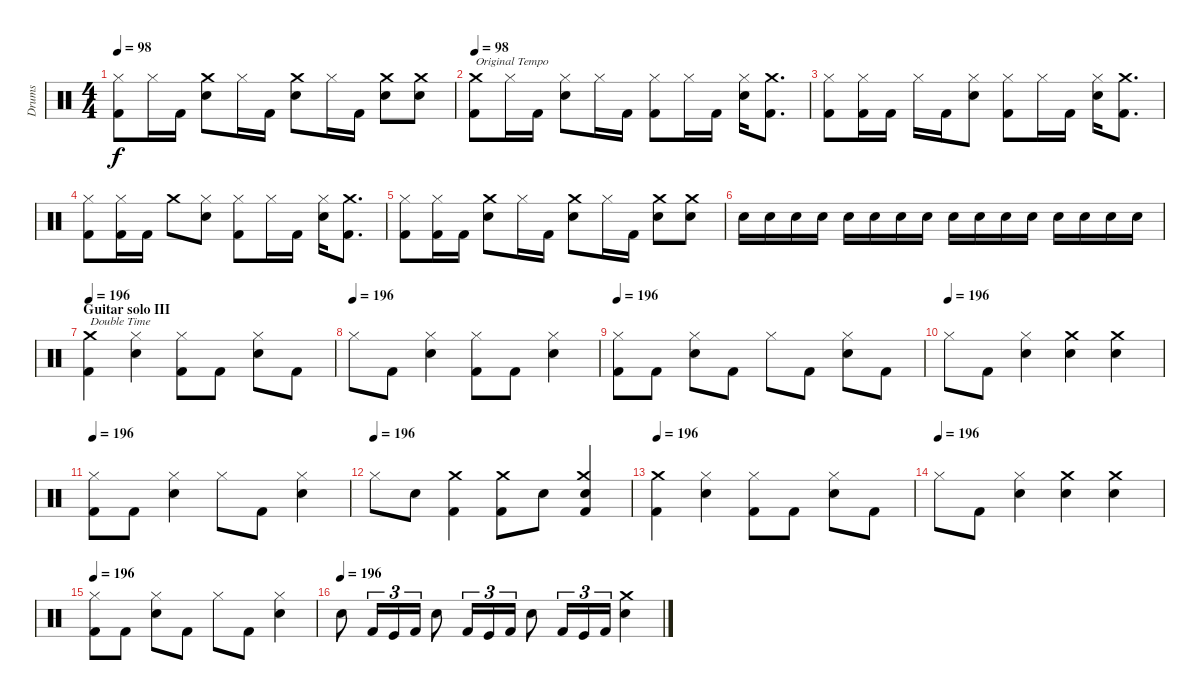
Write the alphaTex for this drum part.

\track ("Drums" "Drums") {instrument percussion}
\staff {score}
\articulation defaults
\ts (4 4)
\tempo 98
\clef neutral
\ks c
("Kick (hit) 2" "Hi-Hat (closed)").8{dy f} "Hi-Hat (closed)".16 "Kick (hit) 2".16 ("Crash medium (hit)" "Snare (hit) 2").8 "Hi-Hat (closed)".16 "Kick (hit) 2".16 ("Snare (hit) 2" "Crash medium (hit)").8 "Hi-Hat (closed)".16 "Kick (hit) 2".16 ("Crash medium (hit)" "Snare (hit) 2").8 ("Crash medium (hit)" "Snare (hit) 2").8 |
\tempo 98
("Crash medium (hit)" "Kick (hit) 2").8{txt "Original Tempo"} "Hi-Hat (closed)".16 "Kick (hit) 2".16 ("Snare (hit) 2" "Hi-Hat (closed)").8 "Hi-Hat (closed)".16 "Kick (hit) 2".16 ("Hi-Hat (closed)" "Kick (hit) 2").8 "Hi-Hat (closed)".16 "Kick (hit) 2".16 ("Snare (hit) 2" "Hi-Hat (closed)").16 ("Crash medium (hit)" "Kick (hit) 2").8{d} |
("Kick (hit) 2" "Hi-Hat (closed)").8 ("Kick (hit) 2" "Hi-Hat (closed)").16 "Kick (hit) 2".16 "Hi-Hat (closed)".16 "Kick (hit) 2".16 ("Snare (hit) 2" "Hi-Hat (closed)").8 ("Kick (hit) 2" "Hi-Hat (closed)").8 "Hi-Hat (closed)".16 "Kick (hit) 2".16 ("Snare (hit) 2" "Hi-Hat (closed)").16 ("Kick (hit) 2" "Crash medium (hit)").8{d} |
("Kick (hit) 2" "Hi-Hat (closed)").8 ("Kick (hit) 2" "Hi-Hat (closed)").16 "Kick (hit) 2".16 "Crash medium (hit)".8 ("Snare (hit) 2" "Hi-Hat (closed)").8 ("Kick (hit) 2" "Hi-Hat (closed)").8 "Hi-Hat (closed)".16 "Kick (hit) 2".16 ("Snare (hit) 2" "Hi-Hat (closed)").16 ("Kick (hit) 2" "Crash medium (hit)").8{d} |
("Kick (hit) 2" "Hi-Hat (closed)").8 ("Kick (hit) 2" "Hi-Hat (closed)").16 "Kick (hit) 2".16 ("Crash medium (hit)" "Snare (hit) 2").8 "Hi-Hat (closed)".16 "Kick (hit) 2".16 ("Snare (hit) 2" "Crash medium (hit)").8 "Hi-Hat (closed)".16 "Kick (hit) 2".16 ("Crash medium (hit)" "Snare (hit) 2").8 ("Crash medium (hit)" "Snare (hit) 2").8 |
"Snare (hit) 2".16 "Snare (hit) 2".16 "Snare (hit) 2".16 "Snare (hit) 2".16 "Snare (hit) 2".16 "Snare (hit) 2".16 "Snare (hit) 2".16 "Snare (hit) 2".16 "Snare (hit) 2".16 "Snare (hit) 2".16 "Snare (hit) 2".16 "Snare (hit) 2".16 "Snare (hit) 2".16 "Snare (hit) 2".16 "Snare (hit) 2".16 "Snare (hit) 2".16 |
\section ("" "Guitar solo III")
\tempo 196
("Kick (hit) 2" "Crash medium (hit)").4{txt "Double Time"} ("Hi-Hat (closed)" "Snare (hit) 2").4 ("Kick (hit) 2" "Hi-Hat (closed)").8 "Kick (hit) 2".8 ("Snare (hit) 2" "Hi-Hat (closed)").8 "Kick (hit) 2".8 |
\tempo (196)
"Hi-Hat (closed)".8 "Kick (hit) 2".8 ("Snare (hit) 2" "Hi-Hat (closed)").4 ("Hi-Hat (closed)" "Kick (hit) 2").8 "Kick (hit) 2".8 ("Snare (hit) 2" "Hi-Hat (closed)").4 |
\tempo 196
("Kick (hit) 2" "Hi-Hat (closed)").8 "Kick (hit) 2".8 ("Snare (hit) 2" "Hi-Hat (closed)").8 "Kick (hit) 2".8 "Hi-Hat (closed)".8 "Kick (hit) 2".8 ("Snare (hit) 2" "Hi-Hat (closed)").8 "Kick (hit) 2".8 |
\tempo (196)
"Hi-Hat (closed)".8 "Kick (hit) 2".8 ("Snare (hit) 2" "Hi-Hat (closed)").4 ("Crash medium (hit)" "Snare (hit) 2").4 ("Crash medium (hit)" "Snare (hit) 2").4 |
\tempo 196
("Kick (hit) 2" "Hi-Hat (closed)").8 "Kick (hit) 2".8 ("Snare (hit) 2" "Hi-Hat (closed)").4 "Hi-Hat (closed)".8 "Kick (hit) 2".8 ("Snare (hit) 2" "Hi-Hat (closed)").4 |
\tempo (196)
"Hi-Hat (closed)".8 "Snare (hit) 2".8 ("Crash medium (hit)" "Kick (hit) 2").4 ("Kick (hit) 2" "Crash medium (hit)").8 "Snare (hit) 2".8 ("Snare (hit) 2" "Crash medium (hit)" "Kick (hit) 2").4 |
\tempo 196
("Kick (hit) 2" "Crash medium (hit)").4 ("Hi-Hat (closed)" "Snare (hit) 2").4 ("Kick (hit) 2" "Hi-Hat (closed)").8 "Kick (hit) 2".8 ("Snare (hit) 2" "Hi-Hat (closed)").8 "Kick (hit) 2".8 |
\tempo (196)
"Hi-Hat (closed)".8 "Kick (hit) 2".8 ("Snare (hit) 2" "Hi-Hat (closed)").4 ("Crash medium (hit)" "Snare (hit) 2").4 ("Crash medium (hit)" "Snare (hit) 2").4 |
\tempo 196
("Kick (hit) 2" "Hi-Hat (closed)").8 "Kick (hit) 2".8 ("Snare (hit) 2" "Hi-Hat (closed)").8 "Kick (hit) 2".8 "Hi-Hat (closed)".8 "Kick (hit) 2".8 ("Snare (hit) 2" "Hi-Hat (closed)").4 |
\tempo (196)
"Snare (hit) 2".8 "Kick (hit) 2".16{tu (3 2)} "Kick (hit)".16{tu (3 2)} "Kick (hit) 2".16{tu (3 2)} "Snare (hit) 2".8 "Kick (hit) 2".16{tu (3 2)} "Kick (hit)".16{tu (3 2)} "Kick (hit) 2".16{tu (3 2)} "Snare (hit) 2".8 "Kick (hit) 2".16{tu (3 2)} "Kick (hit)".16{tu (3 2)} "Kick (hit) 2".16{tu (3 2)} ("Crash medium (hit)" "Snare (hit) 2").4
